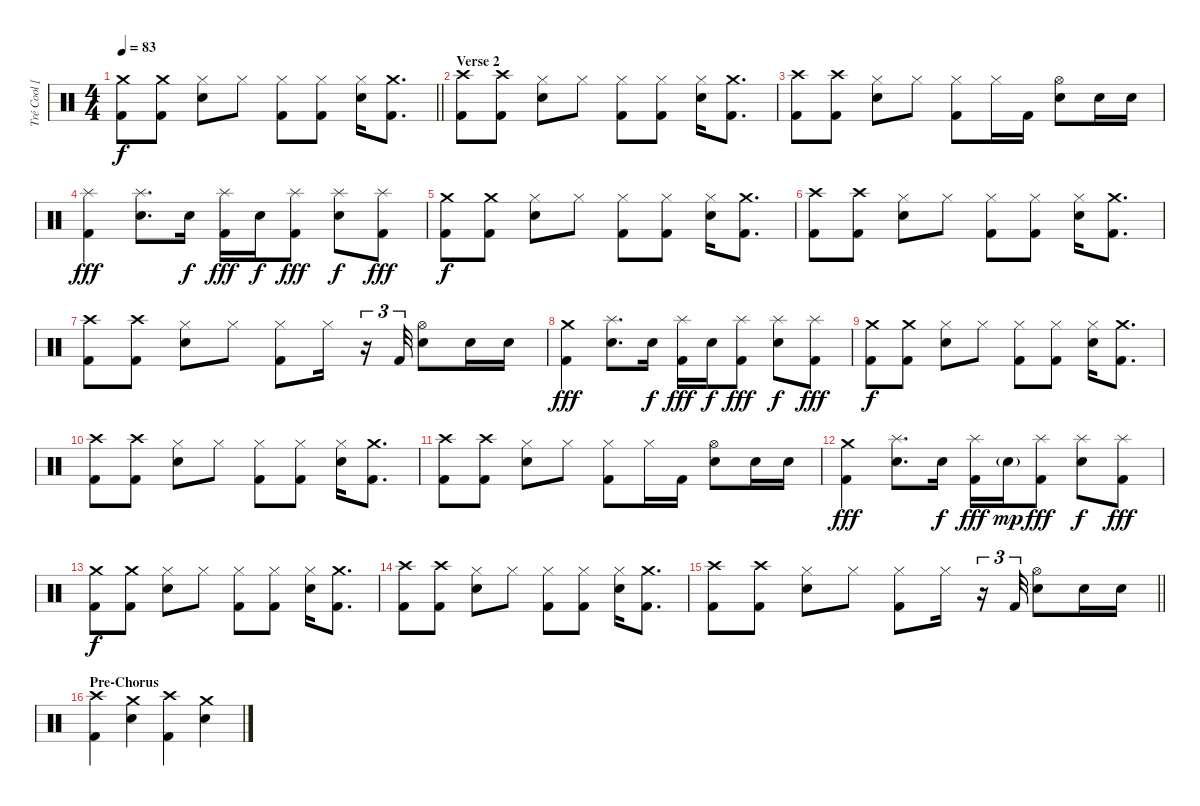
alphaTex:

\track ("Tré Cool [Drums]" "Tré Cool [") {instrument percussion}
\staff {score}
\articulation defaults
\ts (4 4)
\tempo 83
\clef neutral
\barLineRight lightlight
\ks c
("Crash medium (hit)" "Kick (hit) 2").8{dy f} ("Crash medium (hit)" "Kick (hit) 2").8 ("Hi-Hat (closed)" "Electric Snare (hit)").8 "Hi-Hat (closed)".8 ("Hi-Hat (closed)" "Kick (hit) 2").8 ("Hi-Hat (closed)" "Kick (hit) 2").8 ("Hi-Hat (closed)" "Electric Snare (hit)").16 ("Crash medium (hit)" "Kick (hit) 2").8{d} |
\section ("" "Verse 2")
("Crash high (hit)" "Kick (hit) 2").8 ("Crash high (hit)" "Kick (hit) 2").8 ("Hi-Hat (closed)" "Electric Snare (hit)").8 "Hi-Hat (closed)".8 ("Hi-Hat (closed)" "Kick (hit) 2").8 ("Hi-Hat (closed)" "Kick (hit) 2").8 ("Hi-Hat (closed)" "Electric Snare (hit)").16 ("Crash medium (hit)" "Kick (hit) 2").8{d} |
("Crash high (hit)" "Kick (hit) 2").8 ("Crash high (hit)" "Kick (hit) 2").8 ("Hi-Hat (closed)" "Electric Snare (hit)").8 "Hi-Hat (closed)".8 ("Hi-Hat (closed)" "Kick (hit) 2").8 "Hi-Hat (closed)".16 "Kick (hit) 2".16 ("Hi-Hat (open)" "Electric Snare (hit)").8 "Electric Snare (hit)".16 "Electric Snare (hit)".16 |
("Splash (hit)" "Kick (hit) 2").4{dy fff} ("Splash (hit)" "Electric Snare (hit)").8{d} "Electric Snare (hit)".16{dy f} ("Splash (hit)" "Kick (hit) 2").16{dy fff} "Electric Snare (hit)".16{dy f} ("Splash (hit)" "Kick (hit) 2").8{dy fff} ("Splash (hit)" "Electric Snare (hit)").8{dy f} ("Splash (hit)" "Kick (hit) 2").8{dy fff} |
("Crash medium (hit)" "Kick (hit) 2").8{dy f} ("Crash medium (hit)" "Kick (hit) 2").8 ("Hi-Hat (closed)" "Electric Snare (hit)").8 "Hi-Hat (closed)".8 ("Hi-Hat (closed)" "Kick (hit) 2").8 ("Hi-Hat (closed)" "Kick (hit) 2").8 ("Hi-Hat (closed)" "Electric Snare (hit)").16 ("Crash medium (hit)" "Kick (hit) 2").8{d} |
("Crash high (hit)" "Kick (hit) 2").8 ("Crash high (hit)" "Kick (hit) 2").8 ("Hi-Hat (closed)" "Electric Snare (hit)").8 "Hi-Hat (closed)".8 ("Hi-Hat (closed)" "Kick (hit) 2").8 ("Hi-Hat (closed)" "Kick (hit) 2").8 ("Hi-Hat (closed)" "Electric Snare (hit)").16 ("Crash medium (hit)" "Kick (hit) 2").8{d} |
("Crash high (hit)" "Kick (hit) 2").8 ("Crash high (hit)" "Kick (hit) 2").8 ("Hi-Hat (closed)" "Electric Snare (hit)").8 "Hi-Hat (closed)".8 ("Hi-Hat (closed)" "Kick (hit) 2").8 "Hi-Hat (closed)".16 r.16{tu (3 2)} "Kick (hit) 2".32{tu (3 2)} ("Hi-Hat (open)" "Electric Snare (hit)").8 "Electric Snare (hit)".16 "Electric Snare (hit)".16 |
("Crash medium (hit)" "Kick (hit) 2").4{dy fff} ("Splash (hit)" "Electric Snare (hit)").8{d} "Electric Snare (hit)".16{dy f} ("Splash (hit)" "Kick (hit) 2").16{dy fff} "Electric Snare (hit)".16{dy f} ("Splash (hit)" "Kick (hit) 2").8{dy fff} ("Splash (hit)" "Electric Snare (hit)").8{dy f} ("Splash (hit)" "Kick (hit) 2").8{dy fff} |
("Crash medium (hit)" "Kick (hit) 2").8{dy f} ("Crash medium (hit)" "Kick (hit) 2").8 ("Hi-Hat (closed)" "Electric Snare (hit)").8 "Hi-Hat (closed)".8 ("Hi-Hat (closed)" "Kick (hit) 2").8 ("Hi-Hat (closed)" "Kick (hit) 2").8 ("Hi-Hat (closed)" "Electric Snare (hit)").16 ("Crash medium (hit)" "Kick (hit) 2").8{d} |
("Crash high (hit)" "Kick (hit) 2").8 ("Crash high (hit)" "Kick (hit) 2").8 ("Hi-Hat (closed)" "Electric Snare (hit)").8 "Hi-Hat (closed)".8 ("Hi-Hat (closed)" "Kick (hit) 2").8 ("Hi-Hat (closed)" "Kick (hit) 2").8 ("Hi-Hat (closed)" "Electric Snare (hit)").16 ("Crash medium (hit)" "Kick (hit) 2").8{d} |
("Crash high (hit)" "Kick (hit) 2").8 ("Crash high (hit)" "Kick (hit) 2").8 ("Hi-Hat (closed)" "Electric Snare (hit)").8 "Hi-Hat (closed)".8 ("Hi-Hat (closed)" "Kick (hit) 2").8 "Hi-Hat (closed)".16 "Kick (hit) 2".16 ("Hi-Hat (open)" "Electric Snare (hit)").8 "Electric Snare (hit)".16 "Electric Snare (hit)".16 |
("Crash medium (hit)" "Kick (hit) 2").4{dy fff} ("Splash (hit)" "Electric Snare (hit)").8{d} "Electric Snare (hit)".16{dy f} ("Splash (hit)" "Kick (hit) 2").16{dy fff} "Electric Snare (hit)"{g}.16{dy mp} ("Splash (hit)" "Kick (hit) 2").8{dy fff} ("Splash (hit)" "Electric Snare (hit)").8{dy f} ("Splash (hit)" "Kick (hit) 2").8{dy fff} |
("Crash medium (hit)" "Kick (hit) 2").8{dy f} ("Crash medium (hit)" "Kick (hit) 2").8 ("Hi-Hat (closed)" "Electric Snare (hit)").8 "Hi-Hat (closed)".8 ("Hi-Hat (closed)" "Kick (hit) 2").8 ("Hi-Hat (closed)" "Kick (hit) 2").8 ("Hi-Hat (closed)" "Electric Snare (hit)").16 ("Crash medium (hit)" "Kick (hit) 2").8{d} |
("Crash high (hit)" "Kick (hit) 2").8 ("Crash high (hit)" "Kick (hit) 2").8 ("Hi-Hat (closed)" "Electric Snare (hit)").8 "Hi-Hat (closed)".8 ("Hi-Hat (closed)" "Kick (hit) 2").8 ("Hi-Hat (closed)" "Kick (hit) 2").8 ("Hi-Hat (closed)" "Electric Snare (hit)").16 ("Crash medium (hit)" "Kick (hit) 2").8{d} |
\barLineRight lightlight
("Crash high (hit)" "Kick (hit) 2").8 ("Crash high (hit)" "Kick (hit) 2").8 ("Hi-Hat (closed)" "Electric Snare (hit)").8 "Hi-Hat (closed)".8 ("Hi-Hat (closed)" "Kick (hit) 2").8 "Hi-Hat (closed)".16 r.16{tu (3 2)} "Kick (hit) 2".32{tu (3 2)} ("Hi-Hat (open)" "Electric Snare (hit)").8 "Electric Snare (hit)".16 "Electric Snare (hit)".16 |
\section ("" "Pre-Chorus")
("Crash high (hit)" "Kick (hit) 2").4 ("Crash medium (hit)" "Electric Snare (hit)").4 ("Crash high (hit)" "Kick (hit) 2").4 ("Crash medium (hit)" "Electric Snare (hit)").4
